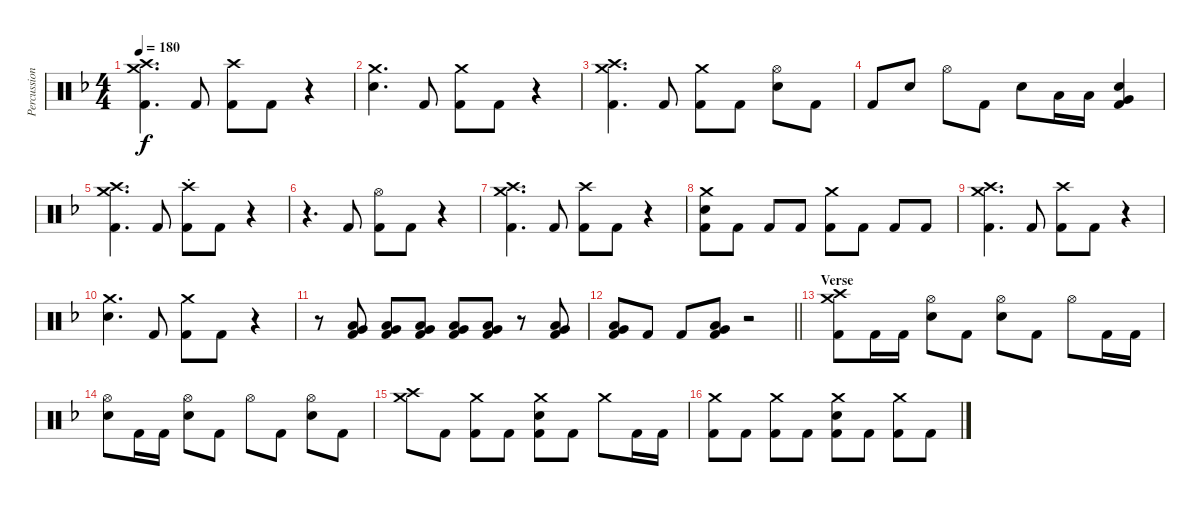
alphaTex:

\track ("Percussion" "Percussion") {instrument percussion}
\staff {score}
\articulation defaults
\ts (4 4)
\tempo 180
\clef neutral
\ks f
("Crash medium (hit)" "Crash high (hit)" "Kick (hit) 2").4{d dy f} "Kick (hit) 2".8 ("Crash high (hit)" "Kick (hit) 2").8 "Kick (hit) 2".8 r.4 |
("Crash medium (hit)" "Electric Snare (hit)").4{d} "Kick (hit) 2".8 ("Crash medium (hit)" "Kick (hit) 2").8 "Kick (hit) 2".8 r.4 |
("Crash medium (hit)" "Crash high (hit)" "Kick (hit) 2").4{d} "Kick (hit) 2".8 ("Crash medium (hit)" "Kick (hit) 2").8 "Kick (hit) 2".8 ("Hi-Hat (open)" "Electric Snare (hit)").8 "Kick (hit) 2".8 |
"Kick (hit) 2".8 "Electric Snare (hit)".8 "Hi-Hat (open)".8 "Kick (hit) 2".8 "Electric Snare (hit)".8 "Low Tom (hit)".16 "Low Tom (hit)".16 ("Very Low Tom (hit)" "Electric Snare (hit)" "Kick (hit) 2").4 |
("Crash medium (hit)" "Crash high (hit)" "Kick (hit) 2").4{d} "Kick (hit) 2".8 ("Crash high (hit)"{st} "Kick (hit) 2").8 "Kick (hit) 2".8 r.4{volume 0} |
r.4{d} "Kick (hit) 2".8{volume 14} ("Hi-Hat (open)" "Kick (hit) 2").8 "Kick (hit) 2".8 r.4 |
("Crash medium (hit)" "Crash high (hit)" "Kick (hit) 2").4{d} "Kick (hit) 2".8 ("Crash high (hit)" "Kick (hit) 2").8 "Kick (hit) 2".8 r.4 |
("Crash medium (hit)" "Electric Snare (hit)" "Kick (hit) 2").8 "Kick (hit) 2".8 "Kick (hit) 2".8 "Kick (hit) 2".8 ("Crash medium (hit)" "Kick (hit) 2").8 "Kick (hit) 2".8 "Kick (hit) 2".8 "Kick (hit) 2".8 |
("Crash medium (hit)" "Crash high (hit)" "Kick (hit) 2").4{d} "Kick (hit) 2".8 ("Crash high (hit)" "Kick (hit) 2").8 "Kick (hit) 2".8 r.4 |
("Crash medium (hit)" "Electric Snare (hit)").4{d} "Kick (hit) 2".8 ("Crash medium (hit)" "Kick (hit) 2").8 "Kick (hit) 2".8 r.4 |
r.8 ("Very Low Tom (hit)" "Low Floor Tom (hit)" "Kick (hit) 2").8 ("Very Low Tom (hit)" "Low Floor Tom (hit)" "Kick (hit) 2").8 ("Very Low Tom (hit)" "Low Floor Tom (hit)" "Kick (hit) 2").8 ("Very Low Tom (hit)" "Low Floor Tom (hit)" "Kick (hit) 2").8 ("Very Low Tom (hit)" "Low Floor Tom (hit)" "Kick (hit) 2").8 r.8 ("Very Low Tom (hit)" "Low Floor Tom (hit)" "Kick (hit) 2").8 |
\barLineRight lightlight
("Very Low Tom (hit)" "Low Floor Tom (hit)" "Kick (hit) 2").8 "Kick (hit) 2".8 "Kick (hit) 2".8 ("Very Low Tom (hit)" "Low Floor Tom (hit)" "Kick (hit) 2").8 r.2 |
\section ("" "Verse")
("Crash medium (hit)" "Crash high (hit)" "Kick (hit) 2").8 "Kick (hit) 2".16 "Kick (hit) 2".16 ("Hi-Hat (open)" "Electric Snare (hit)").8 "Kick (hit) 2".8 ("Hi-Hat (open)" "Electric Snare (hit)").8 "Kick (hit) 2".8 "Hi-Hat (open)".8 "Kick (hit) 2".16 "Kick (hit) 2".16 |
("Hi-Hat (open)" "Electric Snare (hit)").8 "Kick (hit) 2".16 "Kick (hit) 2".16 ("Hi-Hat (open)" "Electric Snare (hit)").8 "Kick (hit) 2".8 "Hi-Hat (open)".8 "Kick (hit) 2".8 ("Hi-Hat (open)" "Electric Snare (hit)").8 "Kick (hit) 2".8 |
("Crash medium (hit)" "Crash high (hit)").8 "Kick (hit) 2".8 ("Crash medium (hit)" "Kick (hit) 2").8 "Kick (hit) 2".8 ("Crash medium (hit)" "Electric Snare (hit)" "Kick (hit) 2").8 "Kick (hit) 2".8 "Crash medium (hit)".8 "Kick (hit) 2".16 "Kick (hit) 2".16 |
("Crash medium (hit)" "Kick (hit) 2").8 "Kick (hit) 2".8 ("Crash medium (hit)" "Kick (hit) 2").8 "Kick (hit) 2".8 ("Crash medium (hit)" "Electric Snare (hit)" "Kick (hit) 2").8 "Kick (hit) 2".8 ("Crash medium (hit)" "Kick (hit) 2").8 "Kick (hit) 2".8
